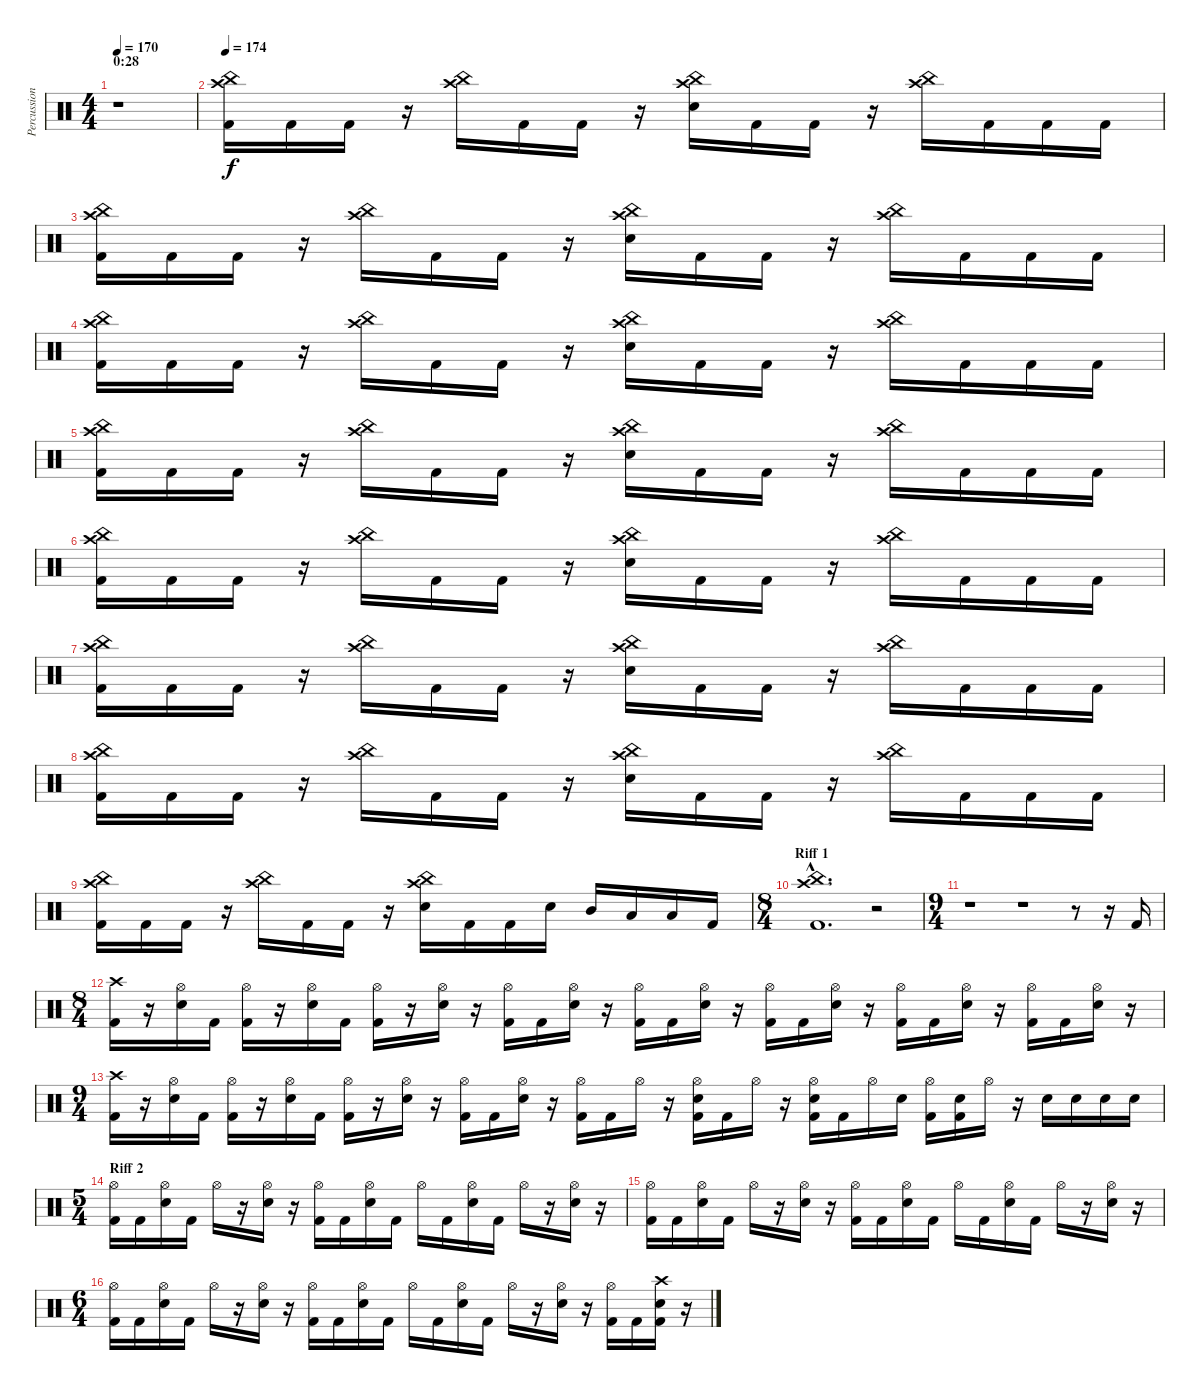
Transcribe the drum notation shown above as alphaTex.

\track ("Percussion" "Percussion") {instrument percussion}
\staff {score}
\articulation defaults
\ts (4 4)
\section ("" "0:28")
\tempo 170
\clef neutral
\ks c
r.1{dy f} |
\tempo 174
("China (hit)" "Crash high (hit)" "Kick (hit) 2").16 "Kick (hit) 2".16 "Kick (hit) 2".16 r.16 ("China (hit)" "Crash high (hit)").16 "Kick (hit) 2".16 "Kick (hit) 2".16 r.16 ("China (hit)" "Crash high (hit)" "Electric Snare (hit)").16 "Kick (hit) 2".16 "Kick (hit) 2".16 r.16 ("China (hit)" "Crash high (hit)").16 "Kick (hit) 2".16 "Kick (hit) 2".16 "Kick (hit) 2".16 |
("China (hit)" "Crash high (hit)" "Kick (hit) 2").16 "Kick (hit) 2".16 "Kick (hit) 2".16 r.16 ("China (hit)" "Crash high (hit)").16 "Kick (hit) 2".16 "Kick (hit) 2".16 r.16 ("China (hit)" "Crash high (hit)" "Electric Snare (hit)").16 "Kick (hit) 2".16 "Kick (hit) 2".16 r.16 ("China (hit)" "Crash high (hit)").16 "Kick (hit) 2".16 "Kick (hit) 2".16 "Kick (hit) 2".16 |
("China (hit)" "Crash high (hit)" "Kick (hit) 2").16 "Kick (hit) 2".16 "Kick (hit) 2".16 r.16 ("China (hit)" "Crash high (hit)").16 "Kick (hit) 2".16 "Kick (hit) 2".16 r.16 ("China (hit)" "Crash high (hit)" "Electric Snare (hit)").16 "Kick (hit) 2".16 "Kick (hit) 2".16 r.16 ("China (hit)" "Crash high (hit)").16 "Kick (hit) 2".16 "Kick (hit) 2".16 "Kick (hit) 2".16 |
("China (hit)" "Crash high (hit)" "Kick (hit) 2").16 "Kick (hit) 2".16 "Kick (hit) 2".16 r.16 ("China (hit)" "Crash high (hit)").16 "Kick (hit) 2".16 "Kick (hit) 2".16 r.16 ("China (hit)" "Crash high (hit)" "Electric Snare (hit)").16 "Kick (hit) 2".16 "Kick (hit) 2".16 r.16 ("China (hit)" "Crash high (hit)").16 "Kick (hit) 2".16 "Kick (hit) 2".16 "Kick (hit) 2".16 |
("China (hit)" "Crash high (hit)" "Kick (hit) 2").16 "Kick (hit) 2".16 "Kick (hit) 2".16 r.16 ("China (hit)" "Crash high (hit)").16 "Kick (hit) 2".16 "Kick (hit) 2".16 r.16 ("China (hit)" "Crash high (hit)" "Electric Snare (hit)").16 "Kick (hit) 2".16 "Kick (hit) 2".16 r.16 ("China (hit)" "Crash high (hit)").16 "Kick (hit) 2".16 "Kick (hit) 2".16 "Kick (hit) 2".16 |
("China (hit)" "Crash high (hit)" "Kick (hit) 2").16 "Kick (hit) 2".16 "Kick (hit) 2".16 r.16 ("China (hit)" "Crash high (hit)").16 "Kick (hit) 2".16 "Kick (hit) 2".16 r.16 ("China (hit)" "Crash high (hit)" "Electric Snare (hit)").16 "Kick (hit) 2".16 "Kick (hit) 2".16 r.16 ("China (hit)" "Crash high (hit)").16 "Kick (hit) 2".16 "Kick (hit) 2".16 "Kick (hit) 2".16 |
("China (hit)" "Crash high (hit)" "Kick (hit) 2").16 "Kick (hit) 2".16 "Kick (hit) 2".16 r.16 ("China (hit)" "Crash high (hit)").16 "Kick (hit) 2".16 "Kick (hit) 2".16 r.16 ("China (hit)" "Crash high (hit)" "Electric Snare (hit)").16 "Kick (hit) 2".16 "Kick (hit) 2".16 r.16 ("China (hit)" "Crash high (hit)").16 "Kick (hit) 2".16 "Kick (hit) 2".16 "Kick (hit) 2".16 |
("China (hit)" "Crash high (hit)" "Kick (hit) 2").16 "Kick (hit) 2".16 "Kick (hit) 2".16 r.16 ("China (hit)" "Crash high (hit)").16 "Kick (hit) 2".16 "Kick (hit) 2".16 r.16 ("China (hit)" "Crash high (hit)" "Electric Snare (hit)").16 "Kick (hit) 2".16 "Kick (hit) 2".16 "Electric Snare (hit)".16 "Mid Tom (hit)".16 "Low Tom (hit)".16 "Low Floor Tom (hit)".16 "Kick (hit) 2".16 |
\ts (8 4)
\section ("" "Riff 1")
("China (hit)"{hac} "Crash high (hit)"{hac} "Kick (hit) 2"{hac}).1{d} r.2 |
\ts (9 4)
r.1 r.1 r.8 r.16 "Kick (hit) 2".16 |
\ts (8 4)
("Crash high (hit)" "Kick (hit) 2").16 r.16 ("Hi-Hat (open)" "Electric Snare (hit)").16 "Kick (hit) 2".16 ("Hi-Hat (open)" "Kick (hit) 2").16 r.16 ("Hi-Hat (open)" "Electric Snare (hit)").16 "Kick (hit) 2".16 ("Hi-Hat (open)" "Kick (hit) 2").16 r.16 ("Hi-Hat (open)" "Electric Snare (hit)").16 r.16 ("Hi-Hat (open)" "Kick (hit) 2").16 "Kick (hit) 2".16 ("Hi-Hat (open)" "Electric Snare (hit)").16 r.16 ("Hi-Hat (open)" "Kick (hit) 2").16 "Kick (hit) 2".16 ("Hi-Hat (open)" "Electric Snare (hit)").16 r.16 ("Hi-Hat (open)" "Kick (hit) 2").16 "Kick (hit) 2".16 ("Hi-Hat (open)" "Electric Snare (hit)").16 r.16 ("Hi-Hat (open)" "Kick (hit) 2").16 "Kick (hit) 2".16 ("Hi-Hat (open)" "Electric Snare (hit)").16 r.16 ("Hi-Hat (open)" "Kick (hit) 2").16 "Kick (hit) 2".16 ("Hi-Hat (open)" "Electric Snare (hit)").16 r.16 |
\ts (9 4)
("Crash high (hit)" "Kick (hit) 2").16 r.16 ("Hi-Hat (open)" "Electric Snare (hit)").16 "Kick (hit) 2".16 ("Hi-Hat (open)" "Kick (hit) 2").16 r.16 ("Hi-Hat (open)" "Electric Snare (hit)").16 "Kick (hit) 2".16 ("Hi-Hat (open)" "Kick (hit) 2").16 r.16 ("Hi-Hat (open)" "Electric Snare (hit)").16 r.16 ("Hi-Hat (open)" "Kick (hit) 2").16 "Kick (hit) 2".16 ("Hi-Hat (open)" "Electric Snare (hit)").16 r.16 ("Hi-Hat (open)" "Kick (hit) 2").16 "Kick (hit) 2".16 "Hi-Hat (open)".16 r.16 ("Hi-Hat (open)" "Electric Snare (hit)" "Kick (hit) 2").16 "Kick (hit) 2".16 "Hi-Hat (open)".16 r.16 ("Hi-Hat (open)" "Electric Snare (hit)" "Kick (hit) 2").16 "Kick (hit) 2".16 "Hi-Hat (open)".16 "Electric Snare (hit)".16 ("Hi-Hat (open)" "Kick (hit) 2").16 ("Electric Snare (hit)" "Kick (hit) 2").16 "Hi-Hat (open)".16 r.16 "Electric Snare (hit)".16 "Electric Snare (hit)".16 "Electric Snare (hit)".16 "Electric Snare (hit)".16 |
\ts (5 4)
\section ("" "Riff 2")
("Hi-Hat (open)" "Kick (hit) 2").16 "Kick (hit) 2".16 ("Hi-Hat (open)" "Electric Snare (hit)").16 "Kick (hit) 2".16 "Hi-Hat (open)".16 r.16 ("Hi-Hat (open)" "Electric Snare (hit)").16 r.16 ("Hi-Hat (open)" "Kick (hit) 2").16 "Kick (hit) 2".16 ("Hi-Hat (open)" "Electric Snare (hit)").16 "Kick (hit) 2".16 "Hi-Hat (open)".16 "Kick (hit) 2".16 ("Hi-Hat (open)" "Electric Snare (hit)").16 "Kick (hit) 2".16 "Hi-Hat (open)".16 r.16 ("Hi-Hat (open)" "Electric Snare (hit)").16 r.16 |
("Hi-Hat (open)" "Kick (hit) 2").16 "Kick (hit) 2".16 ("Hi-Hat (open)" "Electric Snare (hit)").16 "Kick (hit) 2".16 "Hi-Hat (open)".16 r.16 ("Hi-Hat (open)" "Electric Snare (hit)").16 r.16 ("Hi-Hat (open)" "Kick (hit) 2").16 "Kick (hit) 2".16 ("Hi-Hat (open)" "Electric Snare (hit)").16 "Kick (hit) 2".16 "Hi-Hat (open)".16 "Kick (hit) 2".16 ("Hi-Hat (open)" "Electric Snare (hit)").16 "Kick (hit) 2".16 "Hi-Hat (open)".16 r.16 ("Hi-Hat (open)" "Electric Snare (hit)").16 r.16 |
\ts (6 4)
("Hi-Hat (open)" "Kick (hit) 2").16 "Kick (hit) 2".16 ("Hi-Hat (open)" "Electric Snare (hit)").16 "Kick (hit) 2".16 "Hi-Hat (open)".16 r.16 ("Hi-Hat (open)" "Electric Snare (hit)").16 r.16 ("Hi-Hat (open)" "Kick (hit) 2").16 "Kick (hit) 2".16 ("Hi-Hat (open)" "Electric Snare (hit)").16 "Kick (hit) 2".16 "Hi-Hat (open)".16 "Kick (hit) 2".16 ("Hi-Hat (open)" "Electric Snare (hit)").16 "Kick (hit) 2".16 "Hi-Hat (open)".16 r.16 ("Hi-Hat (open)" "Electric Snare (hit)").16 r.16 ("Hi-Hat (open)" "Kick (hit) 2").16 "Kick (hit) 2".16 ("Crash high (hit)" "Electric Snare (hit)" "Kick (hit) 2").16 r.16
